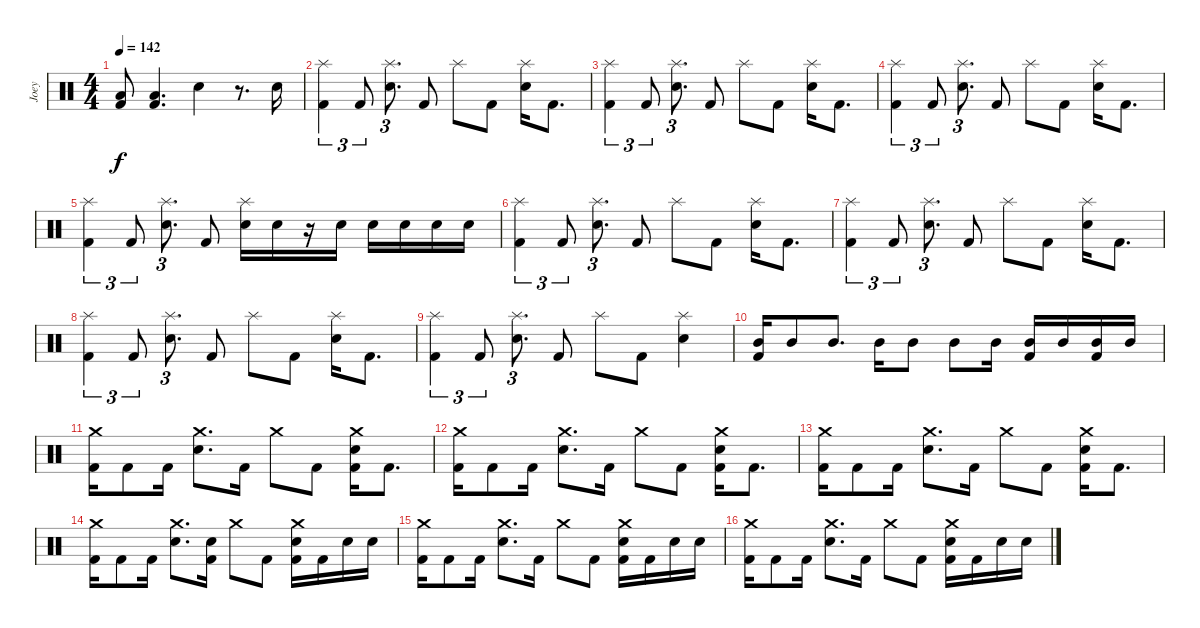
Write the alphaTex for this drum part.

\track ("Joey" "Joey") {instrument percussion}
\staff {score}
\articulation defaults
\ts (4 4)
\tempo 142
\clef neutral
\ks c
("Low Tom (hit)" "Kick (hit) 2").8{dy f} ("Low Tom (hit)" "Kick (hit) 2").4{d} "Snare (hit) 2".4 r.8{d} "Snare (hit) 2".16 |
("Splash (hit)" "Kick (hit) 2").4{tu (3 2)} "Kick (hit) 2".8{tu (3 2)} ("Splash (hit)" "Snare (hit) 2").8{d tu (3 2)} "Kick (hit) 2".8 "Splash (hit)".8 "Kick (hit) 2".8 ("Splash (hit)" "Snare (hit) 2").16 "Kick (hit) 2".8{d} |
("Splash (hit)" "Kick (hit) 2").4{tu (3 2)} "Kick (hit) 2".8{tu (3 2)} ("Splash (hit)" "Snare (hit) 2").8{d tu (3 2)} "Kick (hit) 2".8 "Splash (hit)".8 "Kick (hit) 2".8 ("Splash (hit)" "Snare (hit) 2").16 "Kick (hit) 2".8{d} |
("Splash (hit)" "Kick (hit) 2").4{tu (3 2)} "Kick (hit) 2".8{tu (3 2)} ("Splash (hit)" "Snare (hit) 2").8{d tu (3 2)} "Kick (hit) 2".8 "Splash (hit)".8 "Kick (hit) 2".8 ("Splash (hit)" "Snare (hit) 2").16 "Kick (hit) 2".8{d} |
("Splash (hit)" "Kick (hit) 2").4{tu (3 2)} "Kick (hit) 2".8{tu (3 2)} ("Splash (hit)" "Snare (hit) 2").8{d tu (3 2)} "Kick (hit) 2".8 ("Splash (hit)" "Snare (hit) 2").16 "Snare (hit) 2".16 r.16 "Snare (hit) 2".16 "Snare (hit) 2".16 "Snare (hit) 2".16 "Snare (hit) 2".16 "Snare (hit) 2".16 |
("Splash (hit)" "Kick (hit) 2").4{tu (3 2)} "Kick (hit) 2".8{tu (3 2)} ("Splash (hit)" "Snare (hit) 2").8{d tu (3 2)} "Kick (hit) 2".8 "Splash (hit)".8 "Kick (hit) 2".8 ("Splash (hit)" "Snare (hit) 2").16 "Kick (hit) 2".8{d} |
("Splash (hit)" "Kick (hit) 2").4{tu (3 2)} "Kick (hit) 2".8{tu (3 2)} ("Splash (hit)" "Snare (hit) 2").8{d tu (3 2)} "Kick (hit) 2".8 "Splash (hit)".8 "Kick (hit) 2".8 ("Splash (hit)" "Snare (hit) 2").16 "Kick (hit) 2".8{d} |
("Splash (hit)" "Kick (hit) 2").4{tu (3 2)} "Kick (hit) 2".8{tu (3 2)} ("Splash (hit)" "Snare (hit) 2").8{d tu (3 2)} "Kick (hit) 2".8 "Splash (hit)".8 "Kick (hit) 2".8 ("Splash (hit)" "Snare (hit) 2").16 "Kick (hit) 2".8{d} |
("Splash (hit)" "Kick (hit) 2").4{tu (3 2)} "Kick (hit) 2".8{tu (3 2)} ("Splash (hit)" "Snare (hit) 2").8{d tu (3 2)} "Kick (hit) 2".8 "Splash (hit)".8 "Kick (hit) 2".8 ("Splash (hit)" "Snare (hit) 2").4 |
("Mid Tom (hit)" "Kick (hit) 2").16 "Mid Tom (hit)".8 "Mid Tom (hit)".8{d} "Mid Tom (hit)".16 "Mid Tom (hit)".8 "Mid Tom (hit)".8 "Mid Tom (hit)".16 ("Mid Tom (hit)" "Kick (hit) 2").16 "Mid Tom (hit)".16 ("Mid Tom (hit)" "Kick (hit) 2").16 "Mid Tom (hit)".16 |
("Crash medium (hit)" "Kick (hit) 2").16 "Kick (hit) 2".8 "Kick (hit) 2".16 ("Crash medium (hit)" "Snare (hit) 2").8{d} "Kick (hit) 2".16 "Crash medium (hit)".8 "Kick (hit) 2".8 ("Crash medium (hit)" "Snare (hit) 2" "Kick (hit) 2").16 "Kick (hit) 2".8{d} |
("Crash medium (hit)" "Kick (hit) 2").16 "Kick (hit) 2".8 "Kick (hit) 2".16 ("Crash medium (hit)" "Snare (hit) 2").8{d} "Kick (hit) 2".16 "Crash medium (hit)".8 "Kick (hit) 2".8 ("Crash medium (hit)" "Snare (hit) 2" "Kick (hit) 2").16 "Kick (hit) 2".8{d} |
("Crash medium (hit)" "Kick (hit) 2").16 "Kick (hit) 2".8 "Kick (hit) 2".16 ("Crash medium (hit)" "Snare (hit) 2").8{d} "Kick (hit) 2".16 "Crash medium (hit)".8 "Kick (hit) 2".8 ("Crash medium (hit)" "Snare (hit) 2" "Kick (hit) 2").16 "Kick (hit) 2".8{d} |
("Crash medium (hit)" "Kick (hit) 2").16 "Kick (hit) 2".8 "Kick (hit) 2".16 ("Crash medium (hit)" "Snare (hit) 2").8{d} ("Snare (hit) 2" "Kick (hit) 2").16 "Crash medium (hit)".8 "Kick (hit) 2".8 ("Crash medium (hit)" "Snare (hit) 2" "Kick (hit) 2").16 "Kick (hit) 2".16 "Snare (hit) 2".16 "Snare (hit) 2".16 |
("Crash medium (hit)" "Kick (hit) 2").16 "Kick (hit) 2".8 "Kick (hit) 2".16 ("Crash medium (hit)" "Snare (hit) 2").8{d} "Kick (hit) 2".16 "Crash medium (hit)".8 "Kick (hit) 2".8 ("Crash medium (hit)" "Snare (hit) 2" "Kick (hit) 2").16 "Kick (hit) 2".16 "Snare (hit) 2".16 "Snare (hit) 2".16 |
("Crash medium (hit)" "Kick (hit) 2").16 "Kick (hit) 2".8 "Kick (hit) 2".16 ("Crash medium (hit)" "Snare (hit) 2").8{d} "Kick (hit) 2".16 "Crash medium (hit)".8 "Kick (hit) 2".8 ("Crash medium (hit)" "Snare (hit) 2" "Kick (hit) 2").16 "Kick (hit) 2".16 "Snare (hit) 2".16 "Snare (hit) 2".16
